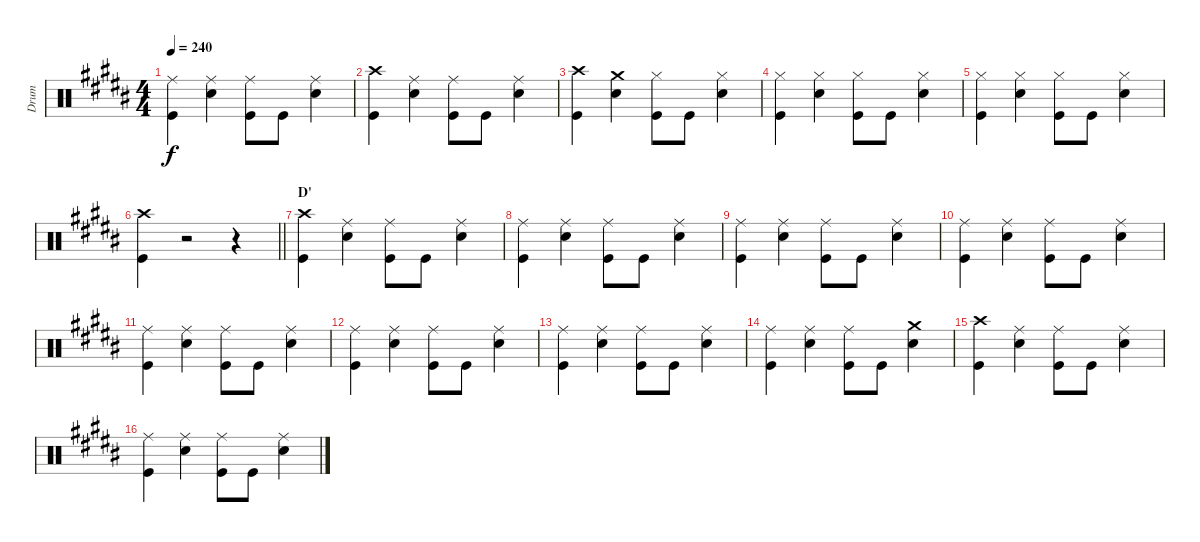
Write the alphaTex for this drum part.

\track ("Drum" "Drum") {instrument percussion}
\staff {score}
\articulation defaults
\ts (4 4)
\tempo 240
\clef neutral
\ks b
("Kick (hit)" "Ride (middle)").4{dy f} ("Snare (hit) 2" "Ride (middle)").4 ("Ride (middle)" "Kick (hit)").8 "Kick (hit)".8 ("Snare (hit) 2" "Ride (middle)").4 |
("Kick (hit)" "Crash high (hit)").4 ("Ride (middle)" "Snare (hit) 2").4 ("Ride (middle)" "Kick (hit)").8 "Kick (hit)".8 ("Snare (hit) 2" "Ride (middle)").4 |
("Kick (hit)" "Crash high (hit)").4 ("Crash medium (hit)" "Snare (hit) 2").4 ("Hi-Hat (closed)" "Kick (hit)").8 "Kick (hit)".8 ("Snare (hit) 2" "Hi-Hat (closed)").4 |
("Kick (hit)" "Hi-Hat (closed)").4 ("Snare (hit) 2" "Hi-Hat (closed)").4 ("Hi-Hat (closed)" "Kick (hit)").8 "Kick (hit)".8 ("Snare (hit) 2" "Hi-Hat (closed)").4 |
("Kick (hit)" "Hi-Hat (closed)").4 ("Snare (hit) 2" "Hi-Hat (closed)").4 ("Hi-Hat (closed)" "Kick (hit)").8 "Kick (hit)".8 ("Snare (hit) 2" "Hi-Hat (closed)").4 |
\barLineRight lightlight
("Kick (hit)" "Crash high (hit)").4 r.2 r.4 |
\section ("" "D'")
("Kick (hit)" "Crash high (hit)").4 ("Ride (middle)" "Snare (hit) 2").4 ("Ride (middle)" "Kick (hit)").8 "Kick (hit)".8 ("Snare (hit) 2" "Ride (middle)").4 |
("Kick (hit)" "Ride (middle)").4 ("Ride (middle)" "Snare (hit) 2").4 ("Ride (middle)" "Kick (hit)").8 "Kick (hit)".8 ("Snare (hit) 2" "Ride (middle)").4 |
("Kick (hit)" "Ride (middle)").4 ("Ride (middle)" "Snare (hit) 2").4 ("Ride (middle)" "Kick (hit)").8 "Kick (hit)".8 ("Snare (hit) 2" "Ride (middle)").4 |
("Kick (hit)" "Ride (middle)").4 ("Ride (middle)" "Snare (hit) 2").4 ("Ride (middle)" "Kick (hit)").8 "Kick (hit)".8 ("Snare (hit) 2" "Ride (middle)").4 |
("Kick (hit)" "Ride (middle)").4 ("Ride (middle)" "Snare (hit) 2").4 ("Ride (middle)" "Kick (hit)").8 "Kick (hit)".8 ("Snare (hit) 2" "Ride (middle)").4 |
("Kick (hit)" "Ride (middle)").4 ("Ride (middle)" "Snare (hit) 2").4 ("Ride (middle)" "Kick (hit)").8 "Kick (hit)".8 ("Snare (hit) 2" "Ride (middle)").4 |
("Kick (hit)" "Ride (middle)").4 ("Ride (middle)" "Snare (hit) 2").4 ("Ride (middle)" "Kick (hit)").8 "Kick (hit)".8 ("Snare (hit) 2" "Ride (middle)").4 |
("Kick (hit)" "Ride (middle)").4 ("Ride (middle)" "Snare (hit) 2").4 ("Ride (middle)" "Kick (hit)").8 "Kick (hit)".8 ("Snare (hit) 2" "Crash medium (hit)").4 |
("Kick (hit)" "Crash high (hit)").4 ("Ride (middle)" "Snare (hit) 2").4 ("Ride (middle)" "Kick (hit)").8 "Kick (hit)".8 ("Snare (hit) 2" "Ride (middle)").4 |
("Kick (hit)" "Ride (middle)").4 ("Ride (middle)" "Snare (hit) 2").4 ("Ride (middle)" "Kick (hit)").8 "Kick (hit)".8 ("Snare (hit) 2" "Ride (middle)").4
